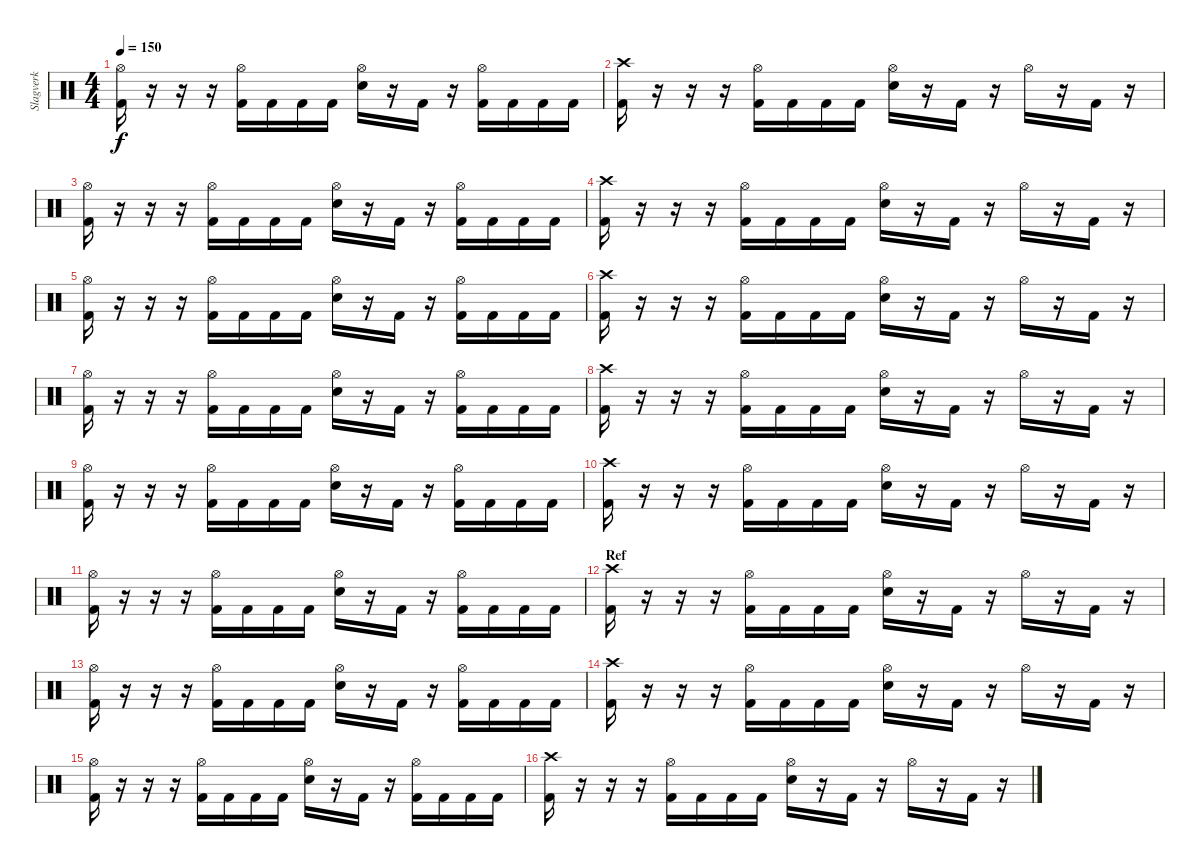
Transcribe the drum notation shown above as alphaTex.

\track ("Slagverk" "Slagverk") {instrument percussion}
\staff {score}
\articulation defaults
\ts (4 4)
\tempo 150
\clef neutral
\ks c
("Kick (hit) 2" "Hi-Hat (open)").16{dy f} r.16 r.16 r.16 ("Kick (hit) 2" "Hi-Hat (open)").16 "Kick (hit) 2".16 "Kick (hit) 2".16 "Kick (hit) 2".16 ("Snare (hit) 2" "Hi-Hat (open)").16 r.16 "Kick (hit) 2".16 r.16 ("Kick (hit) 2" "Hi-Hat (open)").16 "Kick (hit) 2".16 "Kick (hit) 2".16 "Kick (hit) 2".16 |
("Kick (hit) 2" "Crash high (hit)").16 r.16 r.16 r.16 ("Kick (hit) 2" "Hi-Hat (open)").16 "Kick (hit) 2".16 "Kick (hit) 2".16 "Kick (hit) 2".16 ("Snare (hit) 2" "Hi-Hat (open)").16 r.16 "Kick (hit) 2".16 r.16 "Hi-Hat (open)".16 r.16 "Kick (hit) 2".16 r.16 |
("Kick (hit) 2" "Hi-Hat (open)").16 r.16 r.16 r.16 ("Kick (hit) 2" "Hi-Hat (open)").16 "Kick (hit) 2".16 "Kick (hit) 2".16 "Kick (hit) 2".16 ("Snare (hit) 2" "Hi-Hat (open)").16 r.16 "Kick (hit) 2".16 r.16 ("Kick (hit) 2" "Hi-Hat (open)").16 "Kick (hit) 2".16 "Kick (hit) 2".16 "Kick (hit) 2".16 |
("Kick (hit) 2" "Crash high (hit)").16 r.16 r.16 r.16 ("Kick (hit) 2" "Hi-Hat (open)").16 "Kick (hit) 2".16 "Kick (hit) 2".16 "Kick (hit) 2".16 ("Snare (hit) 2" "Hi-Hat (open)").16 r.16 "Kick (hit) 2".16 r.16 "Hi-Hat (open)".16 r.16 "Kick (hit) 2".16 r.16 |
("Kick (hit) 2" "Hi-Hat (open)").16 r.16 r.16 r.16 ("Kick (hit) 2" "Hi-Hat (open)").16 "Kick (hit) 2".16 "Kick (hit) 2".16 "Kick (hit) 2".16 ("Snare (hit) 2" "Hi-Hat (open)").16 r.16 "Kick (hit) 2".16 r.16 ("Kick (hit) 2" "Hi-Hat (open)").16 "Kick (hit) 2".16 "Kick (hit) 2".16 "Kick (hit) 2".16 |
("Kick (hit) 2" "Crash high (hit)").16 r.16 r.16 r.16 ("Kick (hit) 2" "Hi-Hat (open)").16 "Kick (hit) 2".16 "Kick (hit) 2".16 "Kick (hit) 2".16 ("Snare (hit) 2" "Hi-Hat (open)").16 r.16 "Kick (hit) 2".16 r.16 "Hi-Hat (open)".16 r.16 "Kick (hit) 2".16 r.16 |
("Kick (hit) 2" "Hi-Hat (open)").16 r.16 r.16 r.16 ("Kick (hit) 2" "Hi-Hat (open)").16 "Kick (hit) 2".16 "Kick (hit) 2".16 "Kick (hit) 2".16 ("Snare (hit) 2" "Hi-Hat (open)").16 r.16 "Kick (hit) 2".16 r.16 ("Kick (hit) 2" "Hi-Hat (open)").16 "Kick (hit) 2".16 "Kick (hit) 2".16 "Kick (hit) 2".16 |
("Kick (hit) 2" "Crash high (hit)").16 r.16 r.16 r.16 ("Kick (hit) 2" "Hi-Hat (open)").16 "Kick (hit) 2".16 "Kick (hit) 2".16 "Kick (hit) 2".16 ("Snare (hit) 2" "Hi-Hat (open)").16 r.16 "Kick (hit) 2".16 r.16 "Hi-Hat (open)".16 r.16 "Kick (hit) 2".16 r.16 |
("Kick (hit) 2" "Hi-Hat (open)").16 r.16 r.16 r.16 ("Kick (hit) 2" "Hi-Hat (open)").16 "Kick (hit) 2".16 "Kick (hit) 2".16 "Kick (hit) 2".16 ("Snare (hit) 2" "Hi-Hat (open)").16 r.16 "Kick (hit) 2".16 r.16 ("Kick (hit) 2" "Hi-Hat (open)").16 "Kick (hit) 2".16 "Kick (hit) 2".16 "Kick (hit) 2".16 |
("Kick (hit) 2" "Crash high (hit)").16 r.16 r.16 r.16 ("Kick (hit) 2" "Hi-Hat (open)").16 "Kick (hit) 2".16 "Kick (hit) 2".16 "Kick (hit) 2".16 ("Snare (hit) 2" "Hi-Hat (open)").16 r.16 "Kick (hit) 2".16 r.16 "Hi-Hat (open)".16 r.16 "Kick (hit) 2".16 r.16 |
("Kick (hit) 2" "Hi-Hat (open)").16 r.16 r.16 r.16 ("Kick (hit) 2" "Hi-Hat (open)").16 "Kick (hit) 2".16 "Kick (hit) 2".16 "Kick (hit) 2".16 ("Snare (hit) 2" "Hi-Hat (open)").16 r.16 "Kick (hit) 2".16 r.16 ("Kick (hit) 2" "Hi-Hat (open)").16 "Kick (hit) 2".16 "Kick (hit) 2".16 "Kick (hit) 2".16 |
\section ("" "Ref")
("Kick (hit) 2" "Crash high (hit)").16 r.16 r.16 r.16 ("Kick (hit) 2" "Hi-Hat (open)").16 "Kick (hit) 2".16 "Kick (hit) 2".16 "Kick (hit) 2".16 ("Snare (hit) 2" "Hi-Hat (open)").16 r.16 "Kick (hit) 2".16 r.16 "Hi-Hat (open)".16 r.16 "Kick (hit) 2".16 r.16 |
("Kick (hit) 2" "Hi-Hat (open)").16 r.16 r.16 r.16 ("Kick (hit) 2" "Hi-Hat (open)").16 "Kick (hit) 2".16 "Kick (hit) 2".16 "Kick (hit) 2".16 ("Snare (hit) 2" "Hi-Hat (open)").16 r.16 "Kick (hit) 2".16 r.16 ("Kick (hit) 2" "Hi-Hat (open)").16 "Kick (hit) 2".16 "Kick (hit) 2".16 "Kick (hit) 2".16 |
("Kick (hit) 2" "Crash high (hit)").16 r.16 r.16 r.16 ("Kick (hit) 2" "Hi-Hat (open)").16 "Kick (hit) 2".16 "Kick (hit) 2".16 "Kick (hit) 2".16 ("Snare (hit) 2" "Hi-Hat (open)").16 r.16 "Kick (hit) 2".16 r.16 "Hi-Hat (open)".16 r.16 "Kick (hit) 2".16 r.16 |
("Kick (hit) 2" "Hi-Hat (open)").16 r.16 r.16 r.16 ("Kick (hit) 2" "Hi-Hat (open)").16 "Kick (hit) 2".16 "Kick (hit) 2".16 "Kick (hit) 2".16 ("Snare (hit) 2" "Hi-Hat (open)").16 r.16 "Kick (hit) 2".16 r.16 ("Kick (hit) 2" "Hi-Hat (open)").16 "Kick (hit) 2".16 "Kick (hit) 2".16 "Kick (hit) 2".16 |
("Kick (hit) 2" "Crash high (hit)").16 r.16 r.16 r.16 ("Kick (hit) 2" "Hi-Hat (open)").16 "Kick (hit) 2".16 "Kick (hit) 2".16 "Kick (hit) 2".16 ("Snare (hit) 2" "Hi-Hat (open)").16 r.16 "Kick (hit) 2".16 r.16 "Hi-Hat (open)".16 r.16 "Kick (hit) 2".16 r.16
